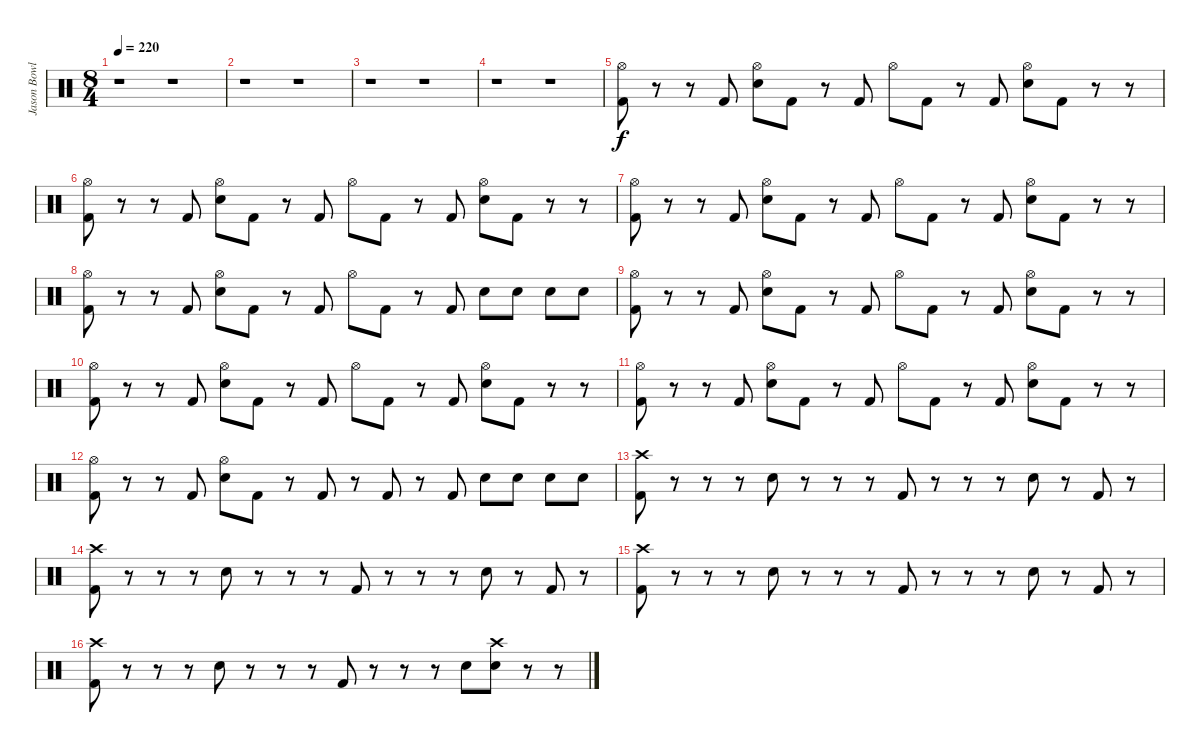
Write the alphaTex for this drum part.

\track ("Jason Bowld" "Jason Bowl") {instrument percussion}
\staff {score}
\articulation defaults
\ts (8 4)
\tempo 220
\clef neutral
\ks c
r.1{dy f} r.1 |
r.1 r.1 |
r.1 r.1 |
r.1 r.1 |
("Hi-Hat (open)" "Kick (hit) 2").8 r.8 r.8 "Kick (hit) 2".8 ("Hi-Hat (open)" "Snare (hit) 2").8 "Kick (hit) 2".8 r.8 "Kick (hit) 2".8 "Hi-Hat (open)".8 "Kick (hit) 2".8 r.8 "Kick (hit) 2".8 ("Hi-Hat (open)" "Snare (hit) 2").8 "Kick (hit) 2".8 r.8 r.8 |
("Hi-Hat (open)" "Kick (hit) 2").8 r.8 r.8 "Kick (hit) 2".8 ("Hi-Hat (open)" "Snare (hit) 2").8 "Kick (hit) 2".8 r.8 "Kick (hit) 2".8 "Hi-Hat (open)".8 "Kick (hit) 2".8 r.8 "Kick (hit) 2".8 ("Hi-Hat (open)" "Snare (hit) 2").8 "Kick (hit) 2".8 r.8 r.8 |
("Hi-Hat (open)" "Kick (hit) 2").8 r.8 r.8 "Kick (hit) 2".8 ("Hi-Hat (open)" "Snare (hit) 2").8 "Kick (hit) 2".8 r.8 "Kick (hit) 2".8 "Hi-Hat (open)".8 "Kick (hit) 2".8 r.8 "Kick (hit) 2".8 ("Hi-Hat (open)" "Snare (hit) 2").8 "Kick (hit) 2".8 r.8 r.8 |
("Hi-Hat (open)" "Kick (hit) 2").8 r.8 r.8 "Kick (hit) 2".8 ("Hi-Hat (open)" "Snare (hit) 2").8 "Kick (hit) 2".8 r.8 "Kick (hit) 2".8 "Hi-Hat (open)".8 "Kick (hit) 2".8 r.8 "Kick (hit) 2".8 "Snare (hit) 2".8 "Snare (hit) 2".8 "Snare (hit) 2".8 "Snare (hit) 2".8 |
("Hi-Hat (open)" "Kick (hit) 2").8 r.8 r.8 "Kick (hit) 2".8 ("Hi-Hat (open)" "Snare (hit) 2").8 "Kick (hit) 2".8 r.8 "Kick (hit) 2".8 "Hi-Hat (open)".8 "Kick (hit) 2".8 r.8 "Kick (hit) 2".8 ("Hi-Hat (open)" "Snare (hit) 2").8 "Kick (hit) 2".8 r.8 r.8 |
("Hi-Hat (open)" "Kick (hit) 2").8 r.8 r.8 "Kick (hit) 2".8 ("Hi-Hat (open)" "Snare (hit) 2").8 "Kick (hit) 2".8 r.8 "Kick (hit) 2".8 "Hi-Hat (open)".8 "Kick (hit) 2".8 r.8 "Kick (hit) 2".8 ("Hi-Hat (open)" "Snare (hit) 2").8 "Kick (hit) 2".8 r.8 r.8 |
("Hi-Hat (open)" "Kick (hit) 2").8 r.8 r.8 "Kick (hit) 2".8 ("Hi-Hat (open)" "Snare (hit) 2").8 "Kick (hit) 2".8 r.8 "Kick (hit) 2".8 "Hi-Hat (open)".8 "Kick (hit) 2".8 r.8 "Kick (hit) 2".8 ("Hi-Hat (open)" "Snare (hit) 2").8 "Kick (hit) 2".8 r.8 r.8 |
("Hi-Hat (open)" "Kick (hit) 2").8 r.8 r.8 "Kick (hit) 2".8 ("Hi-Hat (open)" "Snare (hit) 2").8 "Kick (hit) 2".8 r.8 "Kick (hit) 2".8 r.8 "Kick (hit) 2".8 r.8 "Kick (hit) 2".8 "Snare (hit) 2".8 "Snare (hit) 2".8 "Snare (hit) 2".8 "Snare (hit) 2".8 |
("Kick (hit) 2" "Crash high (hit)").8 r.8 r.8 r.8 "Snare (hit) 2".8 r.8 r.8 r.8 "Kick (hit) 2".8 r.8 r.8 r.8 "Snare (hit) 2".8 r.8 "Kick (hit) 2".8 r.8 |
("Kick (hit) 2" "Crash high (hit)").8 r.8 r.8 r.8 "Snare (hit) 2".8 r.8 r.8 r.8 "Kick (hit) 2".8 r.8 r.8 r.8 "Snare (hit) 2".8 r.8 "Kick (hit) 2".8 r.8 |
("Kick (hit) 2" "Crash high (hit)").8 r.8 r.8 r.8 "Snare (hit) 2".8 r.8 r.8 r.8 "Kick (hit) 2".8 r.8 r.8 r.8 "Snare (hit) 2".8 r.8 "Kick (hit) 2".8 r.8 |
("Kick (hit) 2" "Crash high (hit)").8 r.8 r.8 r.8 "Snare (hit) 2".8 r.8 r.8 r.8 "Kick (hit) 2".8 r.8 r.8 r.8 "Snare (hit) 2".8 ("Snare (hit) 2" "Crash high (hit)").8 r.8 r.8
